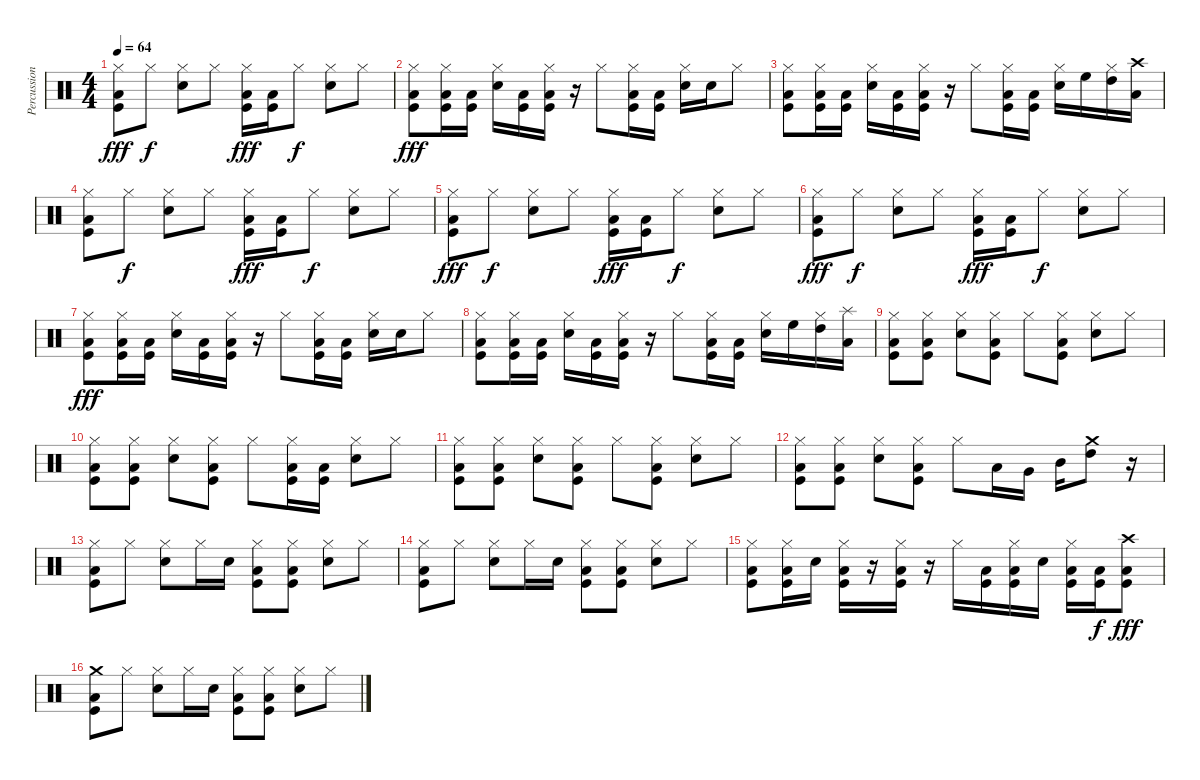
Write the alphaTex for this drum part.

\track ("Percussions" "Percussion") {instrument percussion}
\staff {score}
\articulation defaults
\ts (4 4)
\tempo 64
\clef neutral
\ks c
("Hi-Hat (closed)" "Low Floor Tom (hit)" "Kick (hit)").8{dy fff} "Hi-Hat (closed)".8{dy f} ("Hi-Hat (closed)" "Electric Snare (hit)").8 "Hi-Hat (closed)".8 ("Hi-Hat (closed)" "Low Floor Tom (hit)" "Kick (hit)").16{dy fff} ("Low Floor Tom (hit)" "Kick (hit)").16 "Hi-Hat (closed)".8{dy f} ("Hi-Hat (closed)" "Electric Snare (hit)").8 "Hi-Hat (closed)".8 |
("Hi-Hat (closed)" "Low Floor Tom (hit)" "Kick (hit)").8{dy fff} ("Hi-Hat (closed)" "Low Floor Tom (hit)" "Kick (hit)").16 ("Low Floor Tom (hit)" "Kick (hit)").16 ("Hi-Hat (closed)" "Electric Snare (hit)").16 ("Low Floor Tom (hit)" "Kick (hit)").16 ("Hi-Hat (closed)" "Low Floor Tom (hit)" "Kick (hit)").16 r.16 "Hi-Hat (closed)".8 ("Hi-Hat (closed)" "Low Floor Tom (hit)" "Kick (hit)").16 ("Low Floor Tom (hit)" "Kick (hit)").16 ("Hi-Hat (closed)" "Electric Snare (hit)").16 "Electric Snare (hit)".16 "Hi-Hat (closed)".8 |
("Hi-Hat (closed)" "Low Floor Tom (hit)" "Kick (hit)").8 ("Hi-Hat (closed)" "Low Floor Tom (hit)" "Kick (hit)").16 ("Low Floor Tom (hit)" "Kick (hit)").16 ("Hi-Hat (closed)" "Electric Snare (hit)").16 ("Low Floor Tom (hit)" "Kick (hit)").16 ("Hi-Hat (closed)" "Low Floor Tom (hit)" "Kick (hit)").16 r.16 "Hi-Hat (closed)".8 ("Hi-Hat (closed)" "Low Floor Tom (hit)" "Kick (hit)").16 ("Low Floor Tom (hit)" "Kick (hit)").16 ("Hi-Hat (closed)" "Electric Snare (hit)").16 "High Floor Tom (hit)".16 ("Hi-Hat (closed)" "High Tom (hit)").16 ("Crash high (hit)" "Low Tom (hit)").16 |
("Hi-Hat (closed)" "Low Floor Tom (hit)" "Kick (hit)").8 "Hi-Hat (closed)".8{dy f} ("Hi-Hat (closed)" "Electric Snare (hit)").8 "Hi-Hat (closed)".8 ("Hi-Hat (closed)" "Low Floor Tom (hit)" "Kick (hit)").16{dy fff} ("Low Floor Tom (hit)" "Kick (hit)").16 "Hi-Hat (closed)".8{dy f} ("Hi-Hat (closed)" "Electric Snare (hit)").8 "Hi-Hat (closed)".8 |
("Hi-Hat (closed)" "Low Floor Tom (hit)" "Kick (hit)").8{dy fff} "Hi-Hat (closed)".8{dy f} ("Hi-Hat (closed)" "Electric Snare (hit)").8 "Hi-Hat (closed)".8 ("Hi-Hat (closed)" "Low Floor Tom (hit)" "Kick (hit)").16{dy fff} ("Low Floor Tom (hit)" "Kick (hit)").16 "Hi-Hat (closed)".8{dy f} ("Hi-Hat (closed)" "Electric Snare (hit)").8 "Hi-Hat (closed)".8 |
("Hi-Hat (closed)" "Low Floor Tom (hit)" "Kick (hit)").8{dy fff} "Hi-Hat (closed)".8{dy f} ("Hi-Hat (closed)" "Electric Snare (hit)").8 "Hi-Hat (closed)".8 ("Hi-Hat (closed)" "Low Floor Tom (hit)" "Kick (hit)").16{dy fff} ("Low Floor Tom (hit)" "Kick (hit)").16 "Hi-Hat (closed)".8{dy f} ("Hi-Hat (closed)" "Electric Snare (hit)").8 "Hi-Hat (closed)".8 |
("Hi-Hat (closed)" "Low Floor Tom (hit)" "Kick (hit)").8{dy fff} ("Hi-Hat (closed)" "Low Floor Tom (hit)" "Kick (hit)").16 ("Low Floor Tom (hit)" "Kick (hit)").16 ("Hi-Hat (closed)" "Electric Snare (hit)").16 ("Low Floor Tom (hit)" "Kick (hit)").16 ("Hi-Hat (closed)" "Low Floor Tom (hit)" "Kick (hit)").16 r.16 "Hi-Hat (closed)".8 ("Hi-Hat (closed)" "Low Floor Tom (hit)" "Kick (hit)").16 ("Low Floor Tom (hit)" "Kick (hit)").16 ("Hi-Hat (closed)" "Electric Snare (hit)").16 "Electric Snare (hit)".16 "Hi-Hat (closed)".8 |
("Hi-Hat (closed)" "Low Floor Tom (hit)" "Kick (hit)").8 ("Hi-Hat (closed)" "Low Floor Tom (hit)" "Kick (hit)").16 ("Low Floor Tom (hit)" "Kick (hit)").16 ("Hi-Hat (closed)" "Electric Snare (hit)").16 ("Low Floor Tom (hit)" "Kick (hit)").16 ("Hi-Hat (closed)" "Low Floor Tom (hit)" "Kick (hit)").16 r.16 "Hi-Hat (closed)".8 ("Hi-Hat (closed)" "Low Floor Tom (hit)" "Kick (hit)").16 ("Low Floor Tom (hit)" "Kick (hit)").16 ("Hi-Hat (closed)" "Electric Snare (hit)").16 "High Floor Tom (hit)".16 ("Hi-Hat (closed)" "High Tom (hit)").16 ("Splash (hit)" "Low Tom (hit)").16 |
("Hi-Hat (closed)" "Low Floor Tom (hit)" "Kick (hit)").8 ("Hi-Hat (closed)" "Low Floor Tom (hit)" "Kick (hit)").8 ("Hi-Hat (closed)" "Electric Snare (hit)").8 ("Hi-Hat (closed)" "Low Floor Tom (hit)" "Kick (hit)").8 "Hi-Hat (closed)".8 ("Hi-Hat (closed)" "Low Floor Tom (hit)" "Kick (hit)").8 ("Hi-Hat (closed)" "Electric Snare (hit)").8 "Hi-Hat (closed)".8 |
("Hi-Hat (closed)" "Low Floor Tom (hit)" "Kick (hit)").8 ("Hi-Hat (closed)" "Low Floor Tom (hit)" "Kick (hit)").8 ("Hi-Hat (closed)" "Electric Snare (hit)").8 ("Hi-Hat (closed)" "Low Floor Tom (hit)" "Kick (hit)").8 "Hi-Hat (closed)".8 ("Hi-Hat (closed)" "Low Floor Tom (hit)" "Kick (hit)").16 ("Low Floor Tom (hit)" "Kick (hit)").16 ("Hi-Hat (closed)" "Electric Snare (hit)").8 "Hi-Hat (closed)".8 |
("Hi-Hat (closed)" "Low Floor Tom (hit)" "Kick (hit)").8 ("Hi-Hat (closed)" "Low Floor Tom (hit)" "Kick (hit)").8 ("Hi-Hat (closed)" "Electric Snare (hit)").8 ("Hi-Hat (closed)" "Low Floor Tom (hit)" "Kick (hit)").8 "Hi-Hat (closed)".8 ("Hi-Hat (closed)" "Low Floor Tom (hit)" "Kick (hit)").8 ("Hi-Hat (closed)" "Electric Snare (hit)").8 "Hi-Hat (closed)".8 |
("Hi-Hat (closed)" "Low Floor Tom (hit)" "Kick (hit)").8 ("Hi-Hat (closed)" "Low Floor Tom (hit)" "Kick (hit)").8 ("Hi-Hat (closed)" "Electric Snare (hit)").8 ("Hi-Hat (closed)" "Low Floor Tom (hit)" "Kick (hit)").8 "Hi-Hat (closed)".8 "Low Tom (hit)".16 "Very Low Tom (hit)".16 "Mid Tom (hit)".16 ("Crash medium (hit)" "High Tom (hit)").8 r.16 |
("Hi-Hat (closed)" "Low Floor Tom (hit)" "Kick (hit)").8 "Hi-Hat (closed)".8 ("Hi-Hat (closed)" "Electric Snare (hit)").8 "Hi-Hat (closed)".16 "Electric Snare (hit)".16 ("Hi-Hat (closed)" "Low Floor Tom (hit)" "Kick (hit)").8 ("Hi-Hat (closed)" "Low Floor Tom (hit)" "Kick (hit)").8 ("Hi-Hat (closed)" "Electric Snare (hit)").8 "Hi-Hat (closed)".8 |
("Hi-Hat (closed)" "Low Floor Tom (hit)" "Kick (hit)").8 "Hi-Hat (closed)".8 ("Hi-Hat (closed)" "Electric Snare (hit)").8 "Hi-Hat (closed)".16 "Electric Snare (hit)".16 ("Hi-Hat (closed)" "Low Floor Tom (hit)" "Kick (hit)").8 ("Hi-Hat (closed)" "Low Floor Tom (hit)" "Kick (hit)").8 ("Hi-Hat (closed)" "Electric Snare (hit)").8 "Hi-Hat (closed)".8 |
("Hi-Hat (closed)" "Low Floor Tom (hit)" "Kick (hit)").8 ("Hi-Hat (closed)" "Low Floor Tom (hit)" "Kick (hit)").16 "Electric Snare (hit)".16 ("Hi-Hat (closed)" "Low Floor Tom (hit)" "Kick (hit)").16 r.16 ("Hi-Hat (closed)" "Low Floor Tom (hit)" "Kick (hit)").16 r.16 "Hi-Hat (closed)".16 ("Low Floor Tom (hit)" "Kick (hit)").16 ("Hi-Hat (closed)" "Low Floor Tom (hit)" "Kick (hit)").16 "Electric Snare (hit)".16 ("Hi-Hat (closed)" "Low Floor Tom (hit)" "Kick (hit)").16 ("Low Floor Tom (hit)" "Kick (hit)").16{dy f} ("Crash high (hit)" "Low Floor Tom (hit)" "Kick (hit)").8{dy fff} |
("Crash medium (hit)" "Low Floor Tom (hit)" "Kick (hit)").8 "Hi-Hat (closed)".8 ("Hi-Hat (closed)" "Electric Snare (hit)").8 "Hi-Hat (closed)".16 "Electric Snare (hit)".16 ("Hi-Hat (closed)" "Low Floor Tom (hit)" "Kick (hit)").8 ("Hi-Hat (closed)" "Low Floor Tom (hit)" "Kick (hit)").8 ("Hi-Hat (closed)" "Electric Snare (hit)").8 "Hi-Hat (closed)".8
